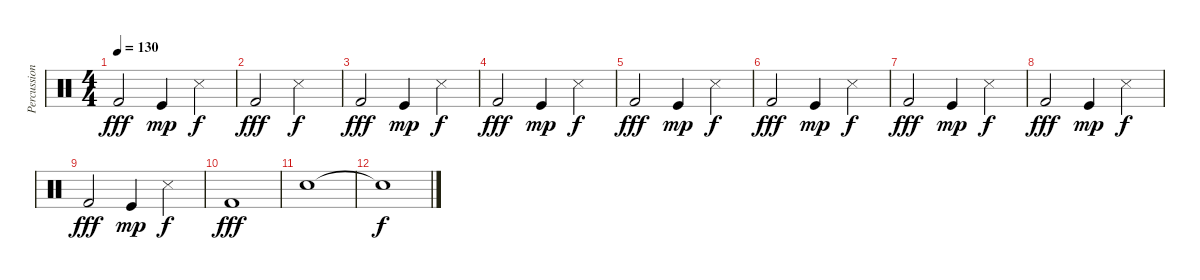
\track ("Percussion" "Percussion") {instrument percussion}
\staff {score}
\articulation defaults
\ts (4 4)
\tempo 130
\clef neutral
\ks c "Kick (hit) 2".2{dy fff} "Kick (hit)".4{dy mp} "Snare (side stick) 3".4{dy f}
|
"Kick (hit) 2".2{dy fff} "Snare (side stick) 3".2{dy f} |
"Kick (hit) 2".2{dy fff} "Kick (hit)".4{dy mp} "Snare (side stick) 3".4{dy f} |
"Kick (hit) 2".2{dy fff} "Kick (hit)".4{dy mp} "Snare (side stick) 3".4{dy f} |
"Kick (hit) 2".2{dy fff} "Kick (hit)".4{dy mp} "Snare (side stick) 3".4{dy f} |
"Kick (hit) 2".2{dy fff} "Kick (hit)".4{dy mp} "Snare (side stick) 3".4{dy f} |
"Kick (hit) 2".2{dy fff} "Kick (hit)".4{dy mp} "Snare (side stick) 3".4{dy f} |
"Kick (hit) 2".2{dy fff} "Kick (hit)".4{dy mp} "Snare (side stick) 3".4{dy f} |
"Kick (hit) 2".2{dy fff} "Kick (hit)".4{dy mp} "Snare (side stick) 3".4{dy f} |
"Kick (hit) 2".1{dy fff} |
"Snare (hit) 2".1 |
"Snare (hit)"{t}.1{dy f}
